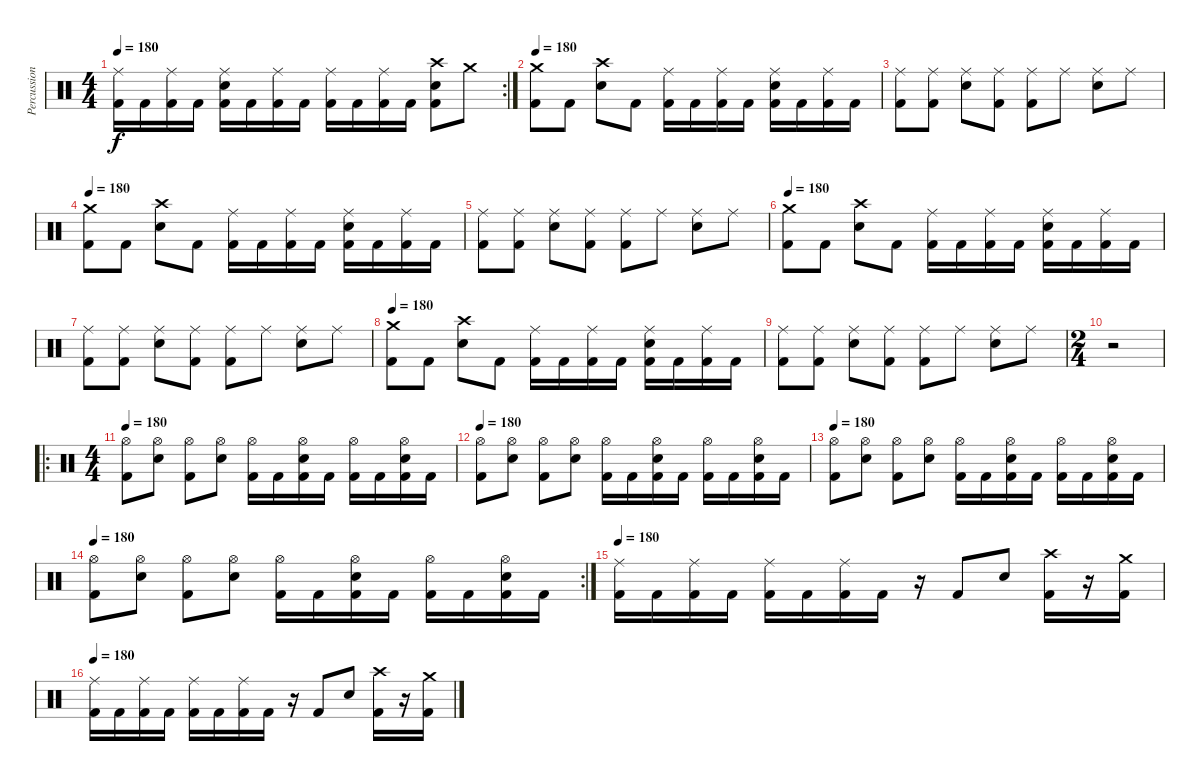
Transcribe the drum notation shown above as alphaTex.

\track ("Percussions" "Percussion") {instrument percussion}
\staff {score}
\articulation defaults
\rc 2
\ts (4 4)
\tempo 180
\clef neutral
\ks c
("Kick (hit) 2" "Ride (middle)").16{dy f} "Kick (hit) 2".16 ("Kick (hit) 2" "Ride (middle)").16 "Kick (hit) 2".16 ("Kick (hit) 2" "Electric Snare (hit)" "Ride (middle)").16 "Kick (hit) 2".16 ("Kick (hit) 2" "Ride (middle)").16 "Kick (hit) 2".16 ("Kick (hit) 2" "Ride (middle)").16 "Kick (hit) 2".16 ("Kick (hit) 2" "Ride (middle)").16 "Kick (hit) 2".16 ("Kick (hit) 2" "Electric Snare (hit)" "Crash high (hit)").8 "Crash medium (hit)".8 |
\tempo 180
("Crash medium (hit)" "Kick (hit) 2").8 "Kick (hit) 2".8 ("Crash high (hit)" "Electric Snare (hit)").8 "Kick (hit) 2".8 ("Kick (hit) 2" "Ride (middle)").16 "Kick (hit) 2".16 ("Kick (hit) 2" "Ride (middle)").16 "Kick (hit) 2".16 ("Kick (hit) 2" "Electric Snare (hit)" "Ride (middle)").16 "Kick (hit) 2".16 ("Kick (hit) 2" "Ride (middle)").16 "Kick (hit) 2".16 |
("Ride (middle)" "Kick (hit) 2").8 ("Ride (middle)" "Kick (hit) 2").8 ("Ride (middle)" "Electric Snare (hit)").8 ("Ride (middle)" "Kick (hit) 2").8 ("Ride (middle)" "Kick (hit) 2").8 "Ride (middle)".8 ("Ride (middle)" "Electric Snare (hit)").8 "Ride (middle)".8 |
\tempo 180
("Crash medium (hit)" "Kick (hit) 2").8 "Kick (hit) 2".8 ("Crash high (hit)" "Electric Snare (hit)").8 "Kick (hit) 2".8 ("Kick (hit) 2" "Ride (middle)").16 "Kick (hit) 2".16 ("Kick (hit) 2" "Ride (middle)").16 "Kick (hit) 2".16 ("Kick (hit) 2" "Electric Snare (hit)" "Ride (middle)").16 "Kick (hit) 2".16 ("Kick (hit) 2" "Ride (middle)").16 "Kick (hit) 2".16 |
("Ride (middle)" "Kick (hit) 2").8 ("Ride (middle)" "Kick (hit) 2").8 ("Ride (middle)" "Electric Snare (hit)").8 ("Ride (middle)" "Kick (hit) 2").8 ("Ride (middle)" "Kick (hit) 2").8 "Ride (middle)".8 ("Ride (middle)" "Electric Snare (hit)").8 "Ride (middle)".8 |
\tempo 180
("Crash medium (hit)" "Kick (hit) 2").8 "Kick (hit) 2".8 ("Crash high (hit)" "Electric Snare (hit)").8 "Kick (hit) 2".8 ("Kick (hit) 2" "Ride (middle)").16 "Kick (hit) 2".16 ("Kick (hit) 2" "Ride (middle)").16 "Kick (hit) 2".16 ("Kick (hit) 2" "Electric Snare (hit)" "Ride (middle)").16 "Kick (hit) 2".16 ("Kick (hit) 2" "Ride (middle)").16 "Kick (hit) 2".16 |
("Ride (middle)" "Kick (hit) 2").8 ("Ride (middle)" "Kick (hit) 2").8 ("Ride (middle)" "Electric Snare (hit)").8 ("Ride (middle)" "Kick (hit) 2").8 ("Ride (middle)" "Kick (hit) 2").8 "Ride (middle)".8 ("Ride (middle)" "Electric Snare (hit)").8 "Ride (middle)".8 |
\tempo 180
("Crash medium (hit)" "Kick (hit) 2").8 "Kick (hit) 2".8 ("Crash high (hit)" "Electric Snare (hit)").8 "Kick (hit) 2".8 ("Kick (hit) 2" "Ride (middle)").16 "Kick (hit) 2".16 ("Kick (hit) 2" "Ride (middle)").16 "Kick (hit) 2".16 ("Kick (hit) 2" "Electric Snare (hit)" "Ride (middle)").16 "Kick (hit) 2".16 ("Kick (hit) 2" "Ride (middle)").16 "Kick (hit) 2".16 |
("Ride (middle)" "Kick (hit) 2").8 ("Ride (middle)" "Kick (hit) 2").8 ("Ride (middle)" "Electric Snare (hit)").8 ("Ride (middle)" "Kick (hit) 2").8 ("Ride (middle)" "Kick (hit) 2").8 "Ride (middle)".8 ("Ride (middle)" "Electric Snare (hit)").8 "Ride (middle)".8 |
\ts (2 4)
r.2 |
\ro
\ts (4 4)
\tempo 180
("Hi-Hat (open)" "Kick (hit) 2").8 ("Hi-Hat (open)" "Electric Snare (hit)").8 ("Hi-Hat (open)" "Kick (hit) 2").8 ("Hi-Hat (open)" "Electric Snare (hit)").8 ("Kick (hit) 2" "Hi-Hat (open)").16 "Kick (hit) 2".16 ("Kick (hit) 2" "Electric Snare (hit)" "Hi-Hat (open)").16 "Kick (hit) 2".16 ("Kick (hit) 2" "Hi-Hat (open)").16 "Kick (hit) 2".16 ("Kick (hit) 2" "Electric Snare (hit)" "Hi-Hat (open)").16 "Kick (hit) 2".16 |
\tempo 180
("Hi-Hat (open)" "Kick (hit) 2").8 ("Hi-Hat (open)" "Electric Snare (hit)").8 ("Hi-Hat (open)" "Kick (hit) 2").8 ("Hi-Hat (open)" "Electric Snare (hit)").8 ("Kick (hit) 2" "Hi-Hat (open)").16 "Kick (hit) 2".16 ("Kick (hit) 2" "Electric Snare (hit)" "Hi-Hat (open)").16 "Kick (hit) 2".16 ("Kick (hit) 2" "Hi-Hat (open)").16 "Kick (hit) 2".16 ("Kick (hit) 2" "Electric Snare (hit)" "Hi-Hat (open)").16 "Kick (hit) 2".16 |
\tempo 180
("Hi-Hat (open)" "Kick (hit) 2").8 ("Hi-Hat (open)" "Electric Snare (hit)").8 ("Hi-Hat (open)" "Kick (hit) 2").8 ("Hi-Hat (open)" "Electric Snare (hit)").8 ("Kick (hit) 2" "Hi-Hat (open)").16 "Kick (hit) 2".16 ("Kick (hit) 2" "Electric Snare (hit)" "Hi-Hat (open)").16 "Kick (hit) 2".16 ("Kick (hit) 2" "Hi-Hat (open)").16 "Kick (hit) 2".16 ("Kick (hit) 2" "Electric Snare (hit)" "Hi-Hat (open)").16 "Kick (hit) 2".16 |
\rc 2
\tempo 180
("Hi-Hat (open)" "Kick (hit) 2").8 ("Hi-Hat (open)" "Electric Snare (hit)").8 ("Hi-Hat (open)" "Kick (hit) 2").8 ("Hi-Hat (open)" "Electric Snare (hit)").8 ("Kick (hit) 2" "Hi-Hat (open)").16 "Kick (hit) 2".16 ("Kick (hit) 2" "Electric Snare (hit)" "Hi-Hat (open)").16 "Kick (hit) 2".16 ("Kick (hit) 2" "Hi-Hat (open)").16 "Kick (hit) 2".16 ("Kick (hit) 2" "Electric Snare (hit)" "Hi-Hat (open)").16 "Kick (hit) 2".16 |
\tempo 180
("Kick (hit) 2" "Ride (middle)").16 "Kick (hit) 2".16 ("Kick (hit) 2" "Ride (middle)").16 "Kick (hit) 2".16 ("Kick (hit) 2" "Ride (middle)").16 "Kick (hit) 2".16 ("Kick (hit) 2" "Ride (middle)").16 "Kick (hit) 2".16 r.16 "Kick (hit) 2".8 "Electric Snare (hit)".8 ("Kick (hit) 2" "Crash high (hit)").16 r.16 ("Kick (hit) 2" "Crash medium (hit)").16 |
\tempo 180
("Kick (hit) 2" "Ride (middle)").16 "Kick (hit) 2".16 ("Kick (hit) 2" "Ride (middle)").16 "Kick (hit) 2".16 ("Kick (hit) 2" "Ride (middle)").16 "Kick (hit) 2".16 ("Kick (hit) 2" "Ride (middle)").16 "Kick (hit) 2".16 r.16 "Kick (hit) 2".8 "Electric Snare (hit)".8 ("Kick (hit) 2" "Crash high (hit)").16 r.16 ("Kick (hit) 2" "Crash medium (hit)").16
